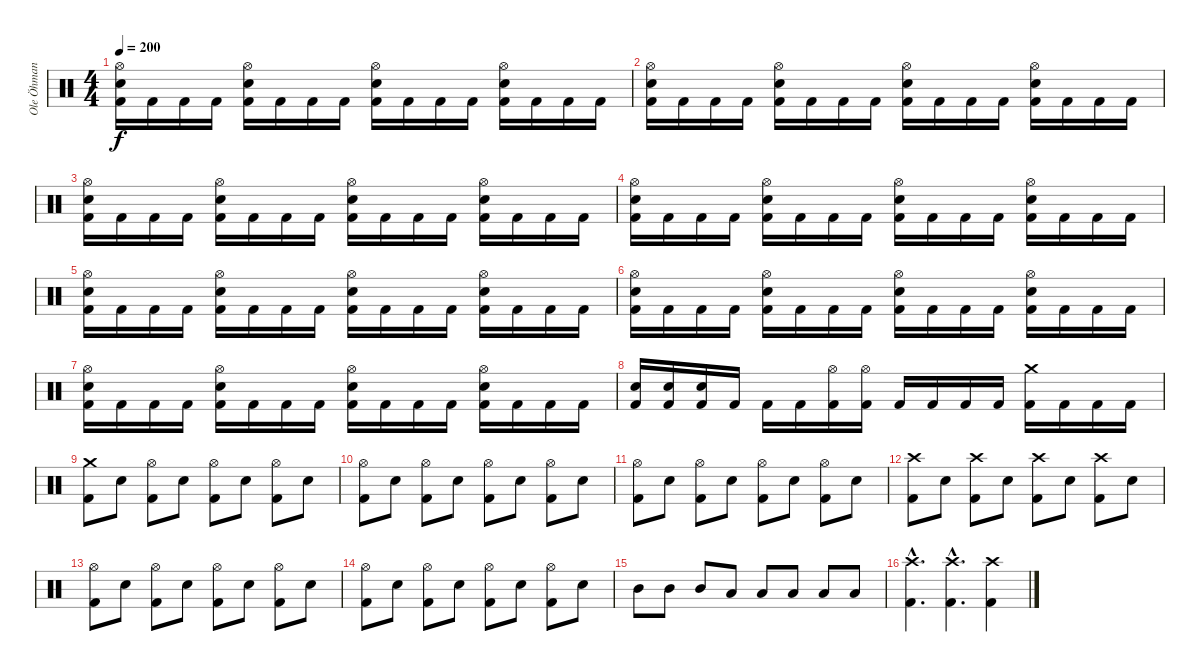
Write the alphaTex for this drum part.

\track ("Ole Öhman" "Ole Öhman") {instrument percussion}
\staff {score}
\articulation defaults
\ts (4 4)
\tempo 200
\clef neutral
\ks c
("Hi-Hat (open)" "Snare (hit) 2" "Kick (hit) 2").16{dy f} "Kick (hit) 2".16 "Kick (hit) 2".16 "Kick (hit) 2".16 ("Hi-Hat (open)" "Snare (hit) 2" "Kick (hit) 2").16 "Kick (hit) 2".16 "Kick (hit) 2".16 "Kick (hit) 2".16 ("Hi-Hat (open)" "Snare (hit) 2" "Kick (hit) 2").16 "Kick (hit) 2".16 "Kick (hit) 2".16 "Kick (hit) 2".16 ("Snare (hit) 2" "Hi-Hat (open)" "Kick (hit) 2").16 "Kick (hit) 2".16 "Kick (hit) 2".16 "Kick (hit) 2".16 |
("Hi-Hat (open)" "Snare (hit) 2" "Kick (hit) 2").16 "Kick (hit) 2".16 "Kick (hit) 2".16 "Kick (hit) 2".16 ("Hi-Hat (open)" "Snare (hit) 2" "Kick (hit) 2").16 "Kick (hit) 2".16 "Kick (hit) 2".16 "Kick (hit) 2".16 ("Hi-Hat (open)" "Snare (hit) 2" "Kick (hit) 2").16 "Kick (hit) 2".16 "Kick (hit) 2".16 "Kick (hit) 2".16 ("Snare (hit) 2" "Hi-Hat (open)" "Kick (hit) 2").16 "Kick (hit) 2".16 "Kick (hit) 2".16 "Kick (hit) 2".16 |
("Hi-Hat (open)" "Snare (hit) 2" "Kick (hit) 2").16 "Kick (hit) 2".16 "Kick (hit) 2".16 "Kick (hit) 2".16 ("Hi-Hat (open)" "Snare (hit) 2" "Kick (hit) 2").16 "Kick (hit) 2".16 "Kick (hit) 2".16 "Kick (hit) 2".16 ("Hi-Hat (open)" "Snare (hit) 2" "Kick (hit) 2").16 "Kick (hit) 2".16 "Kick (hit) 2".16 "Kick (hit) 2".16 ("Snare (hit) 2" "Hi-Hat (open)" "Kick (hit) 2").16 "Kick (hit) 2".16 "Kick (hit) 2".16 "Kick (hit) 2".16 |
("Hi-Hat (open)" "Snare (hit) 2" "Kick (hit) 2").16 "Kick (hit) 2".16 "Kick (hit) 2".16 "Kick (hit) 2".16 ("Hi-Hat (open)" "Snare (hit) 2" "Kick (hit) 2").16 "Kick (hit) 2".16 "Kick (hit) 2".16 "Kick (hit) 2".16 ("Hi-Hat (open)" "Snare (hit) 2" "Kick (hit) 2").16 "Kick (hit) 2".16 "Kick (hit) 2".16 "Kick (hit) 2".16 ("Snare (hit) 2" "Hi-Hat (open)" "Kick (hit) 2").16 "Kick (hit) 2".16 "Kick (hit) 2".16 "Kick (hit) 2".16 |
("Hi-Hat (open)" "Snare (hit) 2" "Kick (hit) 2").16 "Kick (hit) 2".16 "Kick (hit) 2".16 "Kick (hit) 2".16 ("Hi-Hat (open)" "Snare (hit) 2" "Kick (hit) 2").16 "Kick (hit) 2".16 "Kick (hit) 2".16 "Kick (hit) 2".16 ("Hi-Hat (open)" "Snare (hit) 2" "Kick (hit) 2").16 "Kick (hit) 2".16 "Kick (hit) 2".16 "Kick (hit) 2".16 ("Snare (hit) 2" "Hi-Hat (open)" "Kick (hit) 2").16 "Kick (hit) 2".16 "Kick (hit) 2".16 "Kick (hit) 2".16 |
("Hi-Hat (open)" "Snare (hit) 2" "Kick (hit) 2").16 "Kick (hit) 2".16 "Kick (hit) 2".16 "Kick (hit) 2".16 ("Hi-Hat (open)" "Snare (hit) 2" "Kick (hit) 2").16 "Kick (hit) 2".16 "Kick (hit) 2".16 "Kick (hit) 2".16 ("Hi-Hat (open)" "Snare (hit) 2" "Kick (hit) 2").16 "Kick (hit) 2".16 "Kick (hit) 2".16 "Kick (hit) 2".16 ("Snare (hit) 2" "Hi-Hat (open)" "Kick (hit) 2").16 "Kick (hit) 2".16 "Kick (hit) 2".16 "Kick (hit) 2".16 |
("Hi-Hat (open)" "Snare (hit) 2" "Kick (hit) 2").16 "Kick (hit) 2".16 "Kick (hit) 2".16 "Kick (hit) 2".16 ("Hi-Hat (open)" "Snare (hit) 2" "Kick (hit) 2").16 "Kick (hit) 2".16 "Kick (hit) 2".16 "Kick (hit) 2".16 ("Hi-Hat (open)" "Snare (hit) 2" "Kick (hit) 2").16 "Kick (hit) 2".16 "Kick (hit) 2".16 "Kick (hit) 2".16 ("Snare (hit) 2" "Hi-Hat (open)" "Kick (hit) 2").16 "Kick (hit) 2".16 "Kick (hit) 2".16 "Kick (hit) 2".16 |
("Snare (hit) 2" "Kick (hit) 2").16 ("Snare (hit) 2" "Kick (hit) 2").16 ("Snare (hit) 2" "Kick (hit) 2").16 "Kick (hit) 2".16 "Kick (hit) 2".16 "Kick (hit) 2".16 ("Hi-Hat (open)" "Kick (hit) 2").16 ("Hi-Hat (open)" "Kick (hit) 2").16 "Kick (hit) 2".16 "Kick (hit) 2".16 "Kick (hit) 2".16 "Kick (hit) 2".16 ("Crash medium (hit)" "Kick (hit) 2").16 "Kick (hit) 2".16 "Kick (hit) 2".16 "Kick (hit) 2".16 |
("Crash medium (hit)" "Kick (hit) 2").8 "Snare (hit) 2".8 ("Hi-Hat (open)" "Kick (hit) 2").8 "Snare (hit) 2".8 ("Hi-Hat (open)" "Kick (hit) 2").8 "Snare (hit) 2".8 ("Hi-Hat (open)" "Kick (hit) 2").8 "Snare (hit) 2".8 |
("Hi-Hat (open)" "Kick (hit) 2").8 "Snare (hit) 2".8 ("Hi-Hat (open)" "Kick (hit) 2").8 "Snare (hit) 2".8 ("Hi-Hat (open)" "Kick (hit) 2").8 "Snare (hit) 2".8 ("Hi-Hat (open)" "Kick (hit) 2").8 "Snare (hit) 2".8 |
("Hi-Hat (open)" "Kick (hit) 2").8 "Snare (hit) 2".8 ("Hi-Hat (open)" "Kick (hit) 2").8 "Snare (hit) 2".8 ("Hi-Hat (open)" "Kick (hit) 2").8 "Snare (hit) 2".8 ("Hi-Hat (open)" "Kick (hit) 2").8 "Snare (hit) 2".8 |
("Crash high (hit)" "Kick (hit) 2").8 "Snare (hit) 2".8 ("Crash high (hit)" "Kick (hit) 2").8 "Snare (hit) 2".8 ("Crash high (hit)" "Kick (hit) 2").8 "Snare (hit) 2".8 ("Crash high (hit)" "Kick (hit) 2").8 "Snare (hit) 2".8 |
("Hi-Hat (open)" "Kick (hit) 2").8 "Snare (hit) 2".8 ("Hi-Hat (open)" "Kick (hit) 2").8 "Snare (hit) 2".8 ("Hi-Hat (open)" "Kick (hit) 2").8 "Snare (hit) 2".8 ("Hi-Hat (open)" "Kick (hit) 2").8 "Snare (hit) 2".8 |
("Hi-Hat (open)" "Kick (hit) 2").8 "Snare (hit) 2".8 ("Hi-Hat (open)" "Kick (hit) 2").8 "Snare (hit) 2".8 ("Hi-Hat (open)" "Kick (hit) 2").8 "Snare (hit) 2".8 ("Hi-Hat (open)" "Kick (hit) 2").8 "Snare (hit) 2".8 |
"Mid Tom (hit)".8 "Mid Tom (hit)".8 "Mid Tom (hit)".8 "Low Tom (hit)".8 "Low Tom (hit)".8 "Low Tom (hit)".8 "Low Floor Tom (hit)".8 "Low Floor Tom (hit)".8 |
("Crash high (hit)"{hac} "Kick (hit) 2"{hac}).4{d} ("Crash high (hit)"{hac} "Kick (hit) 2"{hac}).4{d} ("Crash high (hit)" "Kick (hit) 2").4
